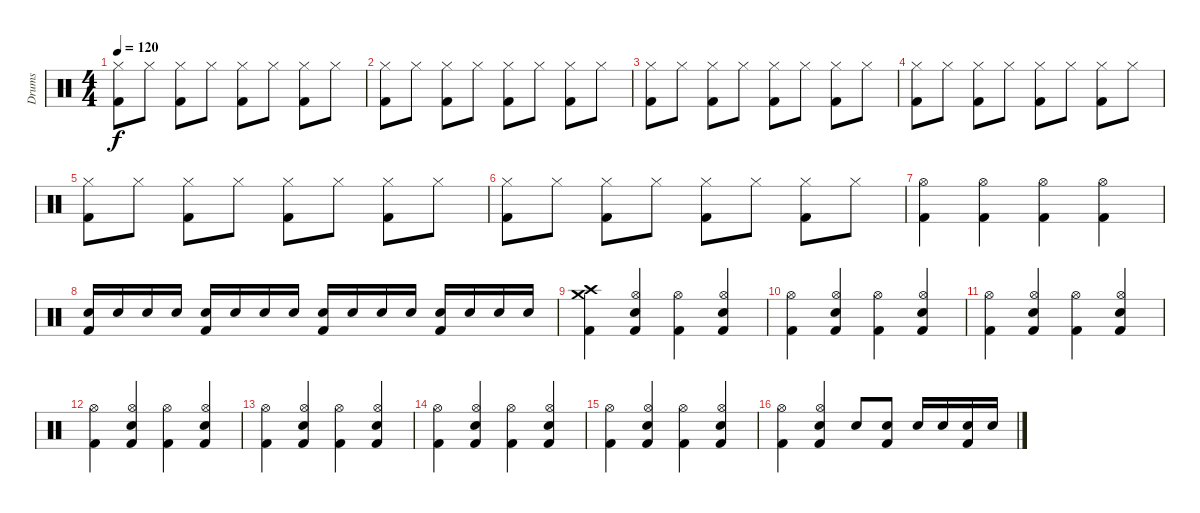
\track ("Drums" "Drums") {instrument percussion}
\staff {score}
\articulation defaults
\ts (4 4)
\tempo 120
\clef neutral
\ks c
("Hi-Hat (closed)" "Kick (hit) 2").8{dy f} "Hi-Hat (closed)".8 ("Hi-Hat (closed)" "Kick (hit) 2").8 "Hi-Hat (closed)".8 ("Hi-Hat (closed)" "Kick (hit) 2").8 "Hi-Hat (closed)".8 ("Hi-Hat (closed)" "Kick (hit) 2").8 "Hi-Hat (closed)".8 |
("Hi-Hat (closed)" "Kick (hit) 2").8 "Hi-Hat (closed)".8 ("Hi-Hat (closed)" "Kick (hit) 2").8 "Hi-Hat (closed)".8 ("Hi-Hat (closed)" "Kick (hit) 2").8 "Hi-Hat (closed)".8 ("Hi-Hat (closed)" "Kick (hit) 2").8 "Hi-Hat (closed)".8 |
("Hi-Hat (closed)" "Kick (hit) 2").8 "Hi-Hat (closed)".8 ("Hi-Hat (closed)" "Kick (hit) 2").8 "Hi-Hat (closed)".8 ("Hi-Hat (closed)" "Kick (hit) 2").8 "Hi-Hat (closed)".8 ("Hi-Hat (closed)" "Kick (hit) 2").8 "Hi-Hat (closed)".8 |
("Hi-Hat (closed)" "Kick (hit) 2").8 "Hi-Hat (closed)".8 ("Hi-Hat (closed)" "Kick (hit) 2").8 "Hi-Hat (closed)".8 ("Hi-Hat (closed)" "Kick (hit) 2").8 "Hi-Hat (closed)".8 ("Hi-Hat (closed)" "Kick (hit) 2").8 "Hi-Hat (closed)".8 |
("Hi-Hat (closed)" "Kick (hit) 2").8 "Hi-Hat (closed)".8 ("Hi-Hat (closed)" "Kick (hit) 2").8 "Hi-Hat (closed)".8 ("Hi-Hat (closed)" "Kick (hit) 2").8 "Hi-Hat (closed)".8 ("Hi-Hat (closed)" "Kick (hit) 2").8 "Hi-Hat (closed)".8 |
("Hi-Hat (closed)" "Kick (hit) 2").8 "Hi-Hat (closed)".8 ("Hi-Hat (closed)" "Kick (hit) 2").8 "Hi-Hat (closed)".8 ("Hi-Hat (closed)" "Kick (hit) 2").8 "Hi-Hat (closed)".8 ("Hi-Hat (closed)" "Kick (hit) 2").8 "Hi-Hat (closed)".8 |
("Hi-Hat (open)" "Kick (hit) 2").4 ("Hi-Hat (open)" "Kick (hit) 2").4 ("Hi-Hat (open)" "Kick (hit) 2").4 ("Hi-Hat (open)" "Kick (hit) 2").4 |
("Kick (hit) 2" "Electric Snare (hit)").16 "Electric Snare (hit)".16 "Electric Snare (hit)".16 "Electric Snare (hit)".16 ("Kick (hit) 2" "Electric Snare (hit)").16 "Electric Snare (hit)".16 "Electric Snare (hit)".16 "Electric Snare (hit)".16 ("Kick (hit) 2" "Electric Snare (hit)").16 "Electric Snare (hit)".16 "Electric Snare (hit)".16 "Electric Snare (hit)".16 ("Kick (hit) 2" "Electric Snare (hit)").16 "Electric Snare (hit)".16 "Electric Snare (hit)".16 "Electric Snare (hit)".16 |
("Crash medium (hit)" "Crash high (hit)" "Kick (hit) 2").4 ("Hi-Hat (open)" "Electric Snare (hit)" "Kick (hit) 2").4 ("Hi-Hat (open)" "Kick (hit) 2").4 ("Hi-Hat (open)" "Electric Snare (hit)" "Kick (hit) 2").4 |
("Hi-Hat (open)" "Kick (hit) 2").4 ("Hi-Hat (open)" "Electric Snare (hit)" "Kick (hit) 2").4 ("Hi-Hat (open)" "Kick (hit) 2").4 ("Hi-Hat (open)" "Electric Snare (hit)" "Kick (hit) 2").4 |
("Hi-Hat (open)" "Kick (hit) 2").4 ("Hi-Hat (open)" "Electric Snare (hit)" "Kick (hit) 2").4 ("Hi-Hat (open)" "Kick (hit) 2").4 ("Hi-Hat (open)" "Electric Snare (hit)" "Kick (hit) 2").4 |
("Hi-Hat (open)" "Kick (hit) 2").4 ("Hi-Hat (open)" "Electric Snare (hit)" "Kick (hit) 2").4 ("Hi-Hat (open)" "Kick (hit) 2").4 ("Hi-Hat (open)" "Electric Snare (hit)" "Kick (hit) 2").4 |
("Hi-Hat (open)" "Kick (hit) 2").4 ("Hi-Hat (open)" "Electric Snare (hit)" "Kick (hit) 2").4 ("Hi-Hat (open)" "Kick (hit) 2").4 ("Hi-Hat (open)" "Electric Snare (hit)" "Kick (hit) 2").4 |
("Hi-Hat (open)" "Kick (hit) 2").4 ("Hi-Hat (open)" "Electric Snare (hit)" "Kick (hit) 2").4 ("Hi-Hat (open)" "Kick (hit) 2").4 ("Hi-Hat (open)" "Electric Snare (hit)" "Kick (hit) 2").4 |
("Hi-Hat (open)" "Kick (hit) 2").4 ("Hi-Hat (open)" "Electric Snare (hit)" "Kick (hit) 2").4 ("Hi-Hat (open)" "Kick (hit) 2").4 ("Hi-Hat (open)" "Electric Snare (hit)" "Kick (hit) 2").4 |
("Hi-Hat (open)" "Kick (hit) 2").4 ("Hi-Hat (open)" "Electric Snare (hit)" "Kick (hit) 2").4 "Electric Snare (hit)".8 ("Kick (hit) 2" "Electric Snare (hit)").8 "Electric Snare (hit)".16 "Electric Snare (hit)".16 ("Kick (hit) 2" "Electric Snare (hit)").16 "Electric Snare (hit)".16
